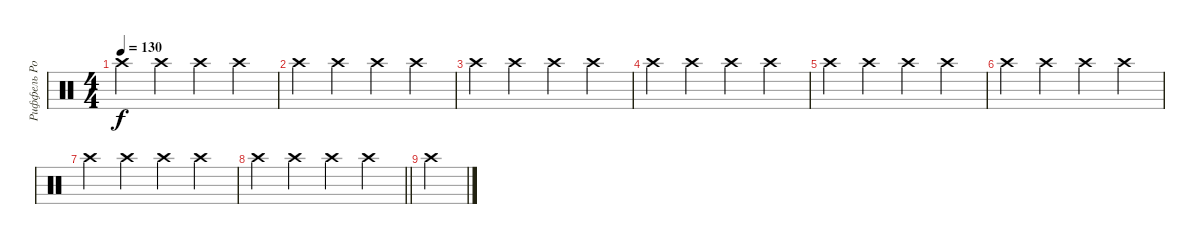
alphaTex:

\track ("Риффель Роман(хэты)" "Риффель Ро") {instrument percussion}
\staff {score}
\articulation defaults
\ts (4 4)
\tempo 130
\clef neutral
\ks c "Crash high (hit)".4{dy f} "Crash high (hit)".4 "Crash high (hit)".4 "Crash high (hit)".4
|
"Crash high (hit)".4 "Crash high (hit)".4 "Crash high (hit)".4 "Crash high (hit)".4 |
"Crash high (hit)".4 "Crash high (hit)".4 "Crash high (hit)".4 "Crash high (hit)".4 |
"Crash high (hit)".4 "Crash high (hit)".4 "Crash high (hit)".4 "Crash high (hit)".4 |
"Crash high (hit)".4 "Crash high (hit)".4 "Crash high (hit)".4 "Crash high (hit)".4 |
"Crash high (hit)".4 "Crash high (hit)".4 "Crash high (hit)".4 "Crash high (hit)".4 |
"Crash high (hit)".4 "Crash high (hit)".4 "Crash high (hit)".4 "Crash high (hit)".4 |
\barLineRight lightlight "Crash high (hit)".4 "Crash high (hit)".4 "Crash high (hit)".4 "Crash high (hit)".4
|
"Crash high (hit)".4
